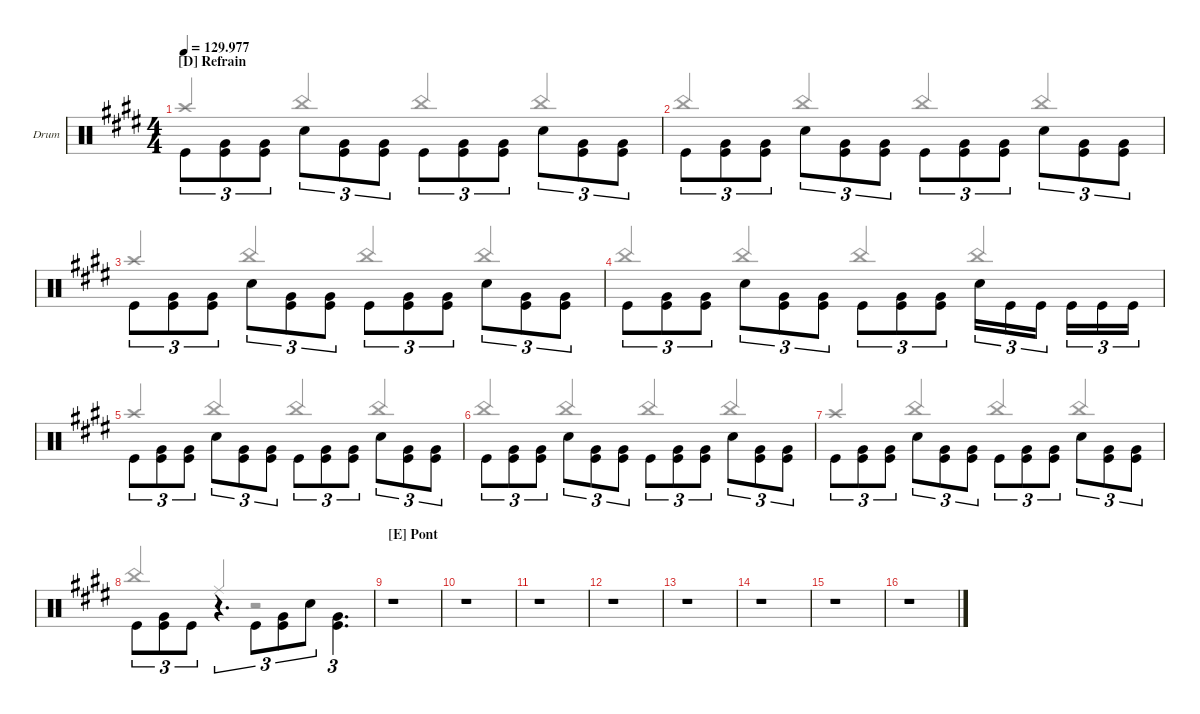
\defaultSystemsLayout 4
\hideDynamics
\bracketExtendMode nobrackets
\firstSystemTrackNameOrientation horizontal
\track ("BATTERIE" "Drum") {defaultSystemsLayout 4 instrument percussion}
\staff {score}
\articulation defaults
\voice
\ts (4 4)
\section ("D" "Refrain")
\tempo
129.977
\accidentals auto
\clef neutral
\ottava regular
\simile none
\ks e "Kick (hit)"{acc forcenatural}.8{tu (3 2) dy mf beam Down}
("Kick (hit)"{acc forcenatural} "Very Low Tom (hit)"{acc forcenatural}).8{tu (3 2) beam Down} ("Kick (hit)"{acc forcenatural} "Very Low Tom (hit)"{acc forcenatural}).8{tu (3 2) beam Down} "Snare (hit) 2"{acc forcenatural}.8{tu (3 2) beam Down} ("Kick (hit)"{acc forcenatural} "Very Low Tom (hit)"{acc forcenatural}).8{tu (3 2) beam Down} ("Kick (hit)"{acc forcenatural} "Very Low Tom (hit)"{acc forcenatural}).8{tu (3 2) beam Down} "Kick (hit)"{acc forcenatural}.8{tu (3 2) beam Down} ("Kick (hit)"{acc forcenatural} "Very Low Tom (hit)"{acc forcenatural}).8{tu (3 2) beam Down} ("Kick (hit)"{acc forcenatural} "Very Low Tom (hit)"{acc forcenatural}).8{tu (3 2) beam Down} "Snare (hit) 2"{acc forcenatural}.8{tu (3 2) beam Down} ("Kick (hit)"{acc forcenatural} "Very Low Tom (hit)"{acc forcenatural}).8{tu (3 2) beam Down} ("Kick (hit)"{acc forcenatural} "Very Low Tom (hit)"{acc forcenatural}).8{tu (3 2) beam Down} |
"Kick (hit)"{acc forcenatural}.8{tu (3 2) beam Down} ("Kick (hit)"{acc forcenatural} "Very Low Tom (hit)"{acc forcenatural}).8{tu (3 2) beam Down} ("Kick (hit)"{acc forcenatural} "Very Low Tom (hit)"{acc forcenatural}).8{tu (3 2) beam Down} "Snare (hit) 2"{acc forcenatural}.8{tu (3 2) beam Down} ("Kick (hit)"{acc forcenatural} "Very Low Tom (hit)"{acc forcenatural}).8{tu (3 2) beam Down} ("Kick (hit)"{acc forcenatural} "Very Low Tom (hit)"{acc forcenatural}).8{tu (3 2) beam Down} "Kick (hit)"{acc forcenatural}.8{tu (3 2) beam Down} ("Kick (hit)"{acc forcenatural} "Very Low Tom (hit)"{acc forcenatural}).8{tu (3 2) beam Down} ("Kick (hit)"{acc forcenatural} "Very Low Tom (hit)"{acc forcenatural}).8{tu (3 2) beam Down} "Snare (hit) 2"{acc forcenatural}.8{tu (3 2) beam Down} ("Kick (hit)"{acc forcenatural} "Very Low Tom (hit)"{acc forcenatural}).8{tu (3 2) beam Down} ("Kick (hit)"{acc forcenatural} "Very Low Tom (hit)"{acc forcenatural}).8{tu (3 2) beam Down} |
"Kick (hit)"{acc forcenatural}.8{tu (3 2) beam Down} ("Kick (hit)"{acc forcenatural} "Very Low Tom (hit)"{acc forcenatural}).8{tu (3 2) beam Down} ("Kick (hit)"{acc forcenatural} "Very Low Tom (hit)"{acc forcenatural}).8{tu (3 2) beam Down} "Snare (hit) 2"{acc forcenatural}.8{tu (3 2) beam Down} ("Kick (hit)"{acc forcenatural} "Very Low Tom (hit)"{acc forcenatural}).8{tu (3 2) beam Down} ("Kick (hit)"{acc forcenatural} "Very Low Tom (hit)"{acc forcenatural}).8{tu (3 2) beam Down} "Kick (hit)"{acc forcenatural}.8{tu (3 2) beam Down} ("Kick (hit)"{acc forcenatural} "Very Low Tom (hit)"{acc forcenatural}).8{tu (3 2) beam Down} ("Kick (hit)"{acc forcenatural} "Very Low Tom (hit)"{acc forcenatural}).8{tu (3 2) beam Down} "Snare (hit) 2"{acc forcenatural}.8{tu (3 2) beam Down} ("Kick (hit)"{acc forcenatural} "Very Low Tom (hit)"{acc forcenatural}).8{tu (3 2) beam Down} ("Kick (hit)"{acc forcenatural} "Very Low Tom (hit)"{acc forcenatural}).8{tu (3 2) beam Down} |
"Kick (hit)"{acc forcenatural}.8{tu (3 2) beam Down} ("Kick (hit)"{acc forcenatural} "Very Low Tom (hit)"{acc forcenatural}).8{tu (3 2) beam Down} ("Kick (hit)"{acc forcenatural} "Very Low Tom (hit)"{acc forcenatural}).8{tu (3 2) beam Down} "Snare (hit) 2"{acc forcenatural}.8{tu (3 2) beam Down} ("Kick (hit)"{acc forcenatural} "Very Low Tom (hit)"{acc forcenatural}).8{tu (3 2) beam Down} ("Kick (hit)"{acc forcenatural} "Very Low Tom (hit)"{acc forcenatural}).8{tu (3 2) beam Down} "Kick (hit)"{acc forcenatural}.8{tu (3 2) beam Down} ("Kick (hit)"{acc forcenatural} "Very Low Tom (hit)"{acc forcenatural}).8{tu (3 2) beam Down} ("Kick (hit)"{acc forcenatural} "Very Low Tom (hit)"{acc forcenatural}).8{tu (3 2) beam Down} "Snare (hit) 2"{acc forcenatural}.16{tu (3 2) beam Down} "Kick (hit)"{acc forcenatural}.16{tu (3 2) beam Down} "Kick (hit)"{acc forcenatural}.16{tu (3 2) beam Down} "Kick (hit)"{acc forcenatural}.16{tu (3 2) beam Down} "Kick (hit)"{acc forcenatural}.16{tu (3 2) beam Down} "Kick (hit)"{acc forcenatural}.16{tu (3 2) beam Down} |
"Kick (hit)"{acc forcenatural}.8{tu (3 2) beam Down} ("Kick (hit)"{acc forcenatural} "Very Low Tom (hit)"{acc forcenatural}).8{tu (3 2) beam Down} ("Kick (hit)"{acc forcenatural} "Very Low Tom (hit)"{acc forcenatural}).8{tu (3 2) beam Down} "Snare (hit) 2"{acc forcenatural}.8{tu (3 2) beam Down} ("Kick (hit)"{acc forcenatural} "Very Low Tom (hit)"{acc forcenatural}).8{tu (3 2) beam Down} ("Kick (hit)"{acc forcenatural} "Very Low Tom (hit)"{acc forcenatural}).8{tu (3 2) beam Down} "Kick (hit)"{acc forcenatural}.8{tu (3 2) beam Down} ("Kick (hit)"{acc forcenatural} "Very Low Tom (hit)"{acc forcenatural}).8{tu (3 2) beam Down} ("Kick (hit)"{acc forcenatural} "Very Low Tom (hit)"{acc forcenatural}).8{tu (3 2) beam Down} "Snare (hit) 2"{acc forcenatural}.8{tu (3 2) beam Down} ("Kick (hit)"{acc forcenatural} "Very Low Tom (hit)"{acc forcenatural}).8{tu (3 2) beam Down} ("Kick (hit)"{acc forcenatural} "Very Low Tom (hit)"{acc forcenatural}).8{tu (3 2) beam Down} |
"Kick (hit)"{acc forcenatural}.8{tu (3 2) beam Down} ("Kick (hit)"{acc forcenatural} "Very Low Tom (hit)"{acc forcenatural}).8{tu (3 2) beam Down} ("Kick (hit)"{acc forcenatural} "Very Low Tom (hit)"{acc forcenatural}).8{tu (3 2) beam Down} "Snare (hit) 2"{acc forcenatural}.8{tu (3 2) beam Down} ("Kick (hit)"{acc forcenatural} "Very Low Tom (hit)"{acc forcenatural}).8{tu (3 2) beam Down} ("Kick (hit)"{acc forcenatural} "Very Low Tom (hit)"{acc forcenatural}).8{tu (3 2) beam Down} "Kick (hit)"{acc forcenatural}.8{tu (3 2) beam Down} ("Kick (hit)"{acc forcenatural} "Very Low Tom (hit)"{acc forcenatural}).8{tu (3 2) beam Down} ("Kick (hit)"{acc forcenatural} "Very Low Tom (hit)"{acc forcenatural}).8{tu (3 2) beam Down} "Snare (hit) 2"{acc forcenatural}.8{tu (3 2) beam Down} ("Kick (hit)"{acc forcenatural} "Very Low Tom (hit)"{acc forcenatural}).8{tu (3 2) beam Down} ("Kick (hit)"{acc forcenatural} "Very Low Tom (hit)"{acc forcenatural}).8{tu (3 2) beam Down} |
"Kick (hit)"{acc forcenatural}.8{tu (3 2) beam Down} ("Kick (hit)"{acc forcenatural} "Very Low Tom (hit)"{acc forcenatural}).8{tu (3 2) beam Down} ("Kick (hit)"{acc forcenatural} "Very Low Tom (hit)"{acc forcenatural}).8{tu (3 2) beam Down} "Snare (hit) 2"{acc forcenatural}.8{tu (3 2) beam Down} ("Kick (hit)"{acc forcenatural} "Very Low Tom (hit)"{acc forcenatural}).8{tu (3 2) beam Down} ("Kick (hit)"{acc forcenatural} "Very Low Tom (hit)"{acc forcenatural}).8{tu (3 2) beam Down} "Kick (hit)"{acc forcenatural}.8{tu (3 2) beam Down} ("Kick (hit)"{acc forcenatural} "Very Low Tom (hit)"{acc forcenatural}).8{tu (3 2) beam Down} ("Kick (hit)"{acc forcenatural} "Very Low Tom (hit)"{acc forcenatural}).8{tu (3 2) beam Down} "Snare (hit) 2"{acc forcenatural}.8{tu (3 2) beam Down} ("Kick (hit)"{acc forcenatural} "Very Low Tom (hit)"{acc forcenatural}).8{tu (3 2) beam Down} ("Kick (hit)"{acc forcenatural} "Very Low Tom (hit)"{acc forcenatural}).8{tu (3 2) beam Down} |
"Kick (hit)"{acc forcenatural}.8{tu (3 2) beam Down} ("Kick (hit)"{acc forcenatural} "Very Low Tom (hit)"{acc forcenatural}).8{tu (3 2) beam Down} "Kick (hit)"{acc forcenatural}.8{tu (3 2) beam Down} r.4{d tu (3 2) beam Down} "Kick (hit)"{acc forcenatural}.8{tu (3 2) beam Down} ("Kick (hit)"{acc forcenatural} "Very Low Tom (hit)"{acc forcenatural}).8{tu (3 2) beam Down} "Snare (hit) 2"{acc forcenatural}.8{tu (3 2) beam Down} ("Kick (hit)"{acc forcenatural} "Very Low Tom (hit)"{acc forcenatural}).4{d tu (3 2) beam Down} |
\section ("E" "Pont")
r.1{beam Down} |
r.1{beam Down} |
r.1{beam Down} |
r.1{beam Down} |
r.1{beam Down} |
r.1{beam Down} |
r.1{beam Down} |
r.1{beam Down}
\voice
\clef neutral
\ottava regular
\simile none
\ks e "Crash high (hit)"{acc forcenatural}.4{dy mf beam Up} "China (hit)"{acc forcenatural}.4{beam Up} "China (hit)"{acc forcenatural}.4{beam Up} "China (hit)"{acc forcenatural}.4{beam Up}
|
"China (hit)"{acc forcenatural}.4{beam Up} "China (hit)"{acc forcenatural}.4{beam Up} "China (hit)"{acc forcenatural}.4{beam Up} "China (hit)"{acc forcenatural}.4{beam Up} |
"Crash high (hit)"{acc forcenatural}.4{beam Up} "China (hit)"{acc forcenatural}.4{beam Up} "China (hit)"{acc forcenatural}.4{beam Up} "China (hit)"{acc forcenatural}.4{beam Up} |
"China (hit)"{acc forcenatural}.4{beam Up} "China (hit)"{acc forcenatural}.4{beam Up} "China (hit)"{acc forcenatural}.4{beam Up} "China (hit)"{acc forcenatural}.4{beam Up} |
"Crash high (hit)"{acc forcenatural}.4{beam Up} "China (hit)"{acc forcenatural}.4{beam Up} "China (hit)"{acc forcenatural}.4{beam Up} "China (hit)"{acc forcenatural}.4{beam Up} |
"China (hit)"{acc forcenatural}.4{beam Up} "China (hit)"{acc forcenatural}.4{beam Up} "China (hit)"{acc forcenatural}.4{beam Up} "China (hit)"{acc forcenatural}.4{beam Up} |
"Crash high (hit)"{acc forcenatural}.4{beam Up} "China (hit)"{acc forcenatural}.4{beam Up} "China (hit)"{acc forcenatural}.4{beam Up} "China (hit)"{acc forcenatural}.4{beam Up} |
"China (hit)"{acc forcenatural}.4{beam Up} "Ride (middle)"{acc forcenatural}.4{beam Up} r.2{beam Up} |
|
|
|
|
|
|
|
